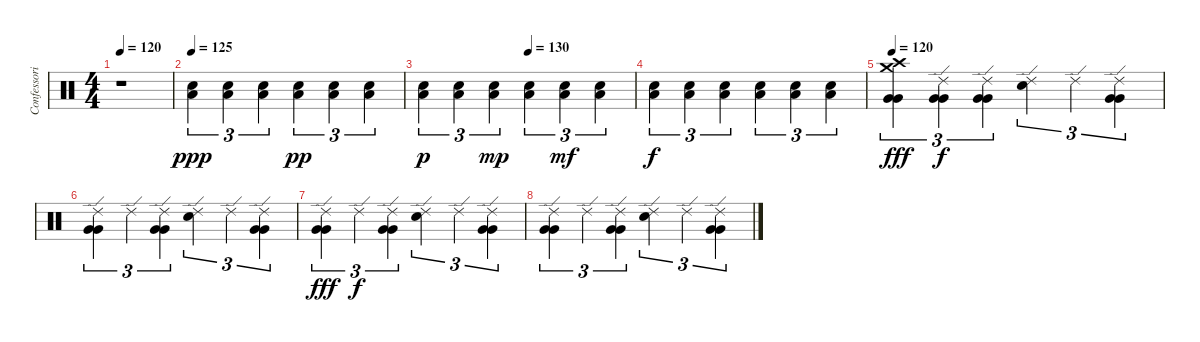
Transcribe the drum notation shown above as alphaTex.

\track ("Confessori" "Confessori") {instrument percussion}
\staff {score}
\articulation defaults
\ts (4 4)
\tempo 120
\clef neutral
\ks c
r.1{dy f} |
\tempo 125
("Electric Snare (hit)" "Low Tom (hit)").4{tu (3 2) dy ppp} ("Electric Snare (hit)" "Low Tom (hit)").4{tu (3 2)} ("Electric Snare (hit)" "Low Tom (hit)").4{tu (3 2)} ("Electric Snare (hit)" "Low Tom (hit)").4{tu (3 2) dy pp} ("Electric Snare (hit)" "Low Tom (hit)").4{tu (3 2)} ("Electric Snare (hit)" "Low Tom (hit)").4{tu (3 2)} |
\tempo (130 0.5)
("Electric Snare (hit)" "Low Tom (hit)").4{tu (3 2) dy p} ("Electric Snare (hit)" "Low Tom (hit)").4{tu (3 2)} ("Electric Snare (hit)" "Low Tom (hit)").4{tu (3 2) dy mp} ("Electric Snare (hit)" "Low Tom (hit)").4{tu (3 2)} ("Electric Snare (hit)" "Low Tom (hit)").4{tu (3 2) dy mf} ("Electric Snare (hit)" "Low Tom (hit)").4{tu (3 2)} |
("Electric Snare (hit)" "Low Tom (hit)").4{tu (3 2) dy f} ("Electric Snare (hit)" "Low Tom (hit)").4{tu (3 2)} ("Electric Snare (hit)" "Low Tom (hit)").4{tu (3 2)} ("Electric Snare (hit)" "Low Tom (hit)").4{tu (3 2)} ("Electric Snare (hit)" "Low Tom (hit)").4{tu (3 2)} ("Electric Snare (hit)" "Low Tom (hit)").4{tu (3 2)} |
\tempo 120
("Crash high (hit)" "Crash medium (hit)" "Very Low Tom (hit)" "Very Low Tom (hit)").4{tu (3 2) dy fff} ("Ride (edge) 2" "Very Low Tom (hit)" "Very Low Tom (hit)").4{tu (3 2) dy f} ("Ride (edge) 2" "Very Low Tom (hit)" "Very Low Tom (hit)").4{tu (3 2)} ("Ride (edge) 2" "Electric Snare (hit)").4{tu (3 2)} "Ride (edge) 2".4{tu (3 2)} ("Ride (edge) 2" "Very Low Tom (hit)" "Very Low Tom (hit)").4{tu (3 2)} |
("Ride (edge) 2" "Very Low Tom (hit)" "Very Low Tom (hit)").4{tu (3 2)} "Ride (edge) 2".4{tu (3 2)} ("Ride (edge) 2" "Very Low Tom (hit)" "Very Low Tom (hit)").4{tu (3 2)} ("Ride (edge) 2" "Electric Snare (hit)").4{tu (3 2)} "Ride (edge) 2".4{tu (3 2)} ("Ride (edge) 2" "Very Low Tom (hit)" "Very Low Tom (hit)").4{tu (3 2)} |
("Ride (edge) 2" "Very Low Tom (hit)" "Very Low Tom (hit)").4{tu (3 2) dy fff} "Ride (edge) 2".4{tu (3 2) dy f} ("Ride (edge) 2" "Very Low Tom (hit)" "Very Low Tom (hit)").4{tu (3 2)} ("Ride (edge) 2" "Electric Snare (hit)").4{tu (3 2)} "Ride (edge) 2".4{tu (3 2)} ("Ride (edge) 2" "Very Low Tom (hit)" "Very Low Tom (hit)").4{tu (3 2)} |
("Ride (edge) 2" "Very Low Tom (hit)" "Very Low Tom (hit)").4{tu (3 2)} "Ride (edge) 2".4{tu (3 2)} ("Ride (edge) 2" "Very Low Tom (hit)" "Very Low Tom (hit)").4{tu (3 2)} ("Ride (edge) 2" "Electric Snare (hit)").4{tu (3 2)} "Ride (edge) 2".4{tu (3 2)} ("Ride (edge) 2" "Very Low Tom (hit)" "Very Low Tom (hit)").4{tu (3 2)}
